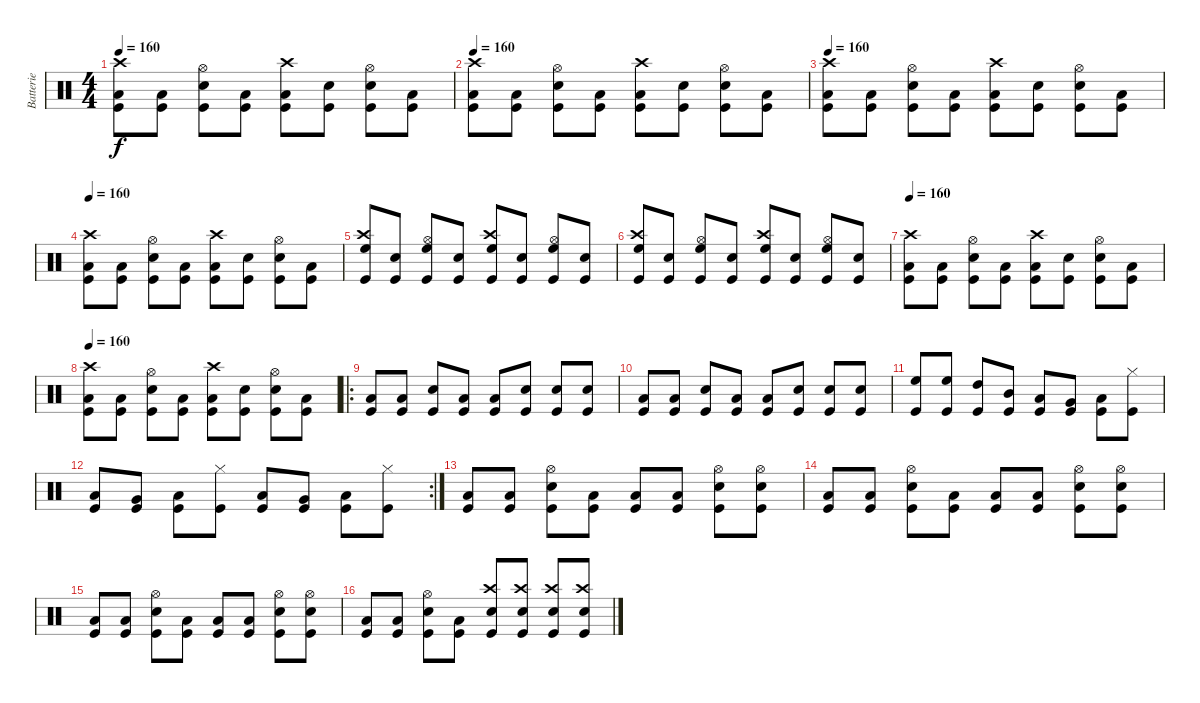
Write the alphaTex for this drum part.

\track ("Batterie" "Batterie") {instrument percussion}
\staff {score}
\articulation defaults
\ts (4 4)
\tempo 160
\clef neutral
\ks c
("Kick (hit)" "Low Tom (hit)" "Crash high (hit)").8{dy f} ("Kick (hit)" "Low Tom (hit)").8 ("Kick (hit)" "Snare (hit) 2" "Hi-Hat (open)").8 ("Kick (hit)" "Low Tom (hit)").8 ("Kick (hit)" "Low Tom (hit)" "Crash high (hit)").8 ("Kick (hit)" "Snare (hit) 2").8 ("Kick (hit)" "Snare (hit) 2" "Hi-Hat (open)").8 ("Low Floor Tom (hit)" "Kick (hit)").8 |
\tempo 160
("Kick (hit)" "Low Tom (hit)" "Crash high (hit)").8 ("Kick (hit)" "Low Tom (hit)").8 ("Kick (hit)" "Snare (hit) 2" "Hi-Hat (open)").8 ("Kick (hit)" "Low Tom (hit)").8 ("Kick (hit)" "Low Tom (hit)" "Crash high (hit)").8 ("Kick (hit)" "Snare (hit) 2").8 ("Kick (hit)" "Snare (hit) 2" "Hi-Hat (open)").8 ("Low Floor Tom (hit)" "Kick (hit)").8 |
\tempo 160
("Kick (hit)" "Low Tom (hit)" "Crash high (hit)").8 ("Kick (hit)" "Low Tom (hit)").8 ("Kick (hit)" "Snare (hit) 2" "Hi-Hat (open)").8 ("Kick (hit)" "Low Tom (hit)").8 ("Kick (hit)" "Low Tom (hit)" "Crash high (hit)").8 ("Kick (hit)" "Snare (hit) 2").8 ("Kick (hit)" "Snare (hit) 2" "Hi-Hat (open)").8 ("Low Floor Tom (hit)" "Kick (hit)").8 |
\tempo 160
("Kick (hit)" "Low Tom (hit)" "Crash high (hit)").8 ("Kick (hit)" "Low Tom (hit)").8 ("Kick (hit)" "Snare (hit) 2" "Hi-Hat (open)").8 ("Kick (hit)" "Low Tom (hit)").8 ("Kick (hit)" "Low Tom (hit)" "Crash high (hit)").8 ("Kick (hit)" "Snare (hit) 2").8 ("Kick (hit)" "Snare (hit) 2" "Hi-Hat (open)").8 ("Low Floor Tom (hit)" "Kick (hit)").8 |
("Kick (hit)" "High Floor Tom (hit)" "Crash high (hit)").8 ("Kick (hit)" "Snare (hit) 2").8 ("Kick (hit)" "High Floor Tom (hit)" "Hi-Hat (open)").8 ("Kick (hit)" "Snare (hit) 2").8 ("Kick (hit)" "High Floor Tom (hit)" "Crash high (hit)").8 ("Kick (hit)" "Snare (hit) 2").8 ("Kick (hit)" "High Floor Tom (hit)" "Hi-Hat (open)").8 ("Kick (hit)" "Snare (hit) 2").8 |
("Kick (hit)" "High Floor Tom (hit)" "Crash high (hit)").8 ("Kick (hit)" "Snare (hit) 2").8 ("Kick (hit)" "High Floor Tom (hit)" "Hi-Hat (open)").8 ("Kick (hit)" "Snare (hit) 2").8 ("Kick (hit)" "High Floor Tom (hit)" "Crash high (hit)").8 ("Kick (hit)" "Snare (hit) 2").8 ("Kick (hit)" "High Floor Tom (hit)" "Hi-Hat (open)").8 ("Kick (hit)" "Snare (hit) 2").8 |
\tempo 160
("Kick (hit)" "Low Tom (hit)" "Crash high (hit)").8 ("Kick (hit)" "Low Tom (hit)").8 ("Kick (hit)" "Snare (hit) 2" "Hi-Hat (open)").8 ("Kick (hit)" "Low Tom (hit)").8 ("Kick (hit)" "Low Tom (hit)" "Crash high (hit)").8 ("Kick (hit)" "Snare (hit) 2").8 ("Kick (hit)" "Snare (hit) 2" "Hi-Hat (open)").8 ("Low Floor Tom (hit)" "Kick (hit)").8 |
\tempo 160
("Kick (hit)" "Low Tom (hit)" "Crash high (hit)").8 ("Kick (hit)" "Low Tom (hit)").8 ("Kick (hit)" "Snare (hit) 2" "Hi-Hat (open)").8 ("Kick (hit)" "Low Tom (hit)").8 ("Kick (hit)" "Low Tom (hit)" "Crash high (hit)").8 ("Kick (hit)" "Snare (hit) 2").8 ("Kick (hit)" "Snare (hit) 2" "Hi-Hat (open)").8 ("Low Floor Tom (hit)" "Kick (hit)").8 |
\ro
("Low Floor Tom (hit)" "Kick (hit)").8 ("Low Floor Tom (hit)" "Kick (hit)").8 ("Snare (hit) 2" "Kick (hit)").8 ("Low Floor Tom (hit)" "Kick (hit)").8 ("Low Floor Tom (hit)" "Kick (hit)").8 ("Snare (hit) 2" "Kick (hit)").8 ("Snare (hit) 2" "Kick (hit)").8 ("Snare (hit) 2" "Kick (hit)").8 |
("Low Floor Tom (hit)" "Kick (hit)").8 ("Low Floor Tom (hit)" "Kick (hit)").8 ("Snare (hit) 2" "Kick (hit)").8 ("Low Floor Tom (hit)" "Kick (hit)").8 ("Low Floor Tom (hit)" "Kick (hit)").8 ("Snare (hit) 2" "Kick (hit)").8 ("Snare (hit) 2" "Kick (hit)").8 ("Snare (hit) 2" "Kick (hit)").8 |
("Kick (hit)" "High Floor Tom (hit)").8 ("Kick (hit)" "High Floor Tom (hit)").8 ("Kick (hit)" "High Tom (hit)").8 ("Kick (hit)" "Mid Tom (hit)").8 ("Kick (hit)" "Low Tom (hit)").8 ("Kick (hit)" "Very Low Tom (hit)").8 ("Kick (hit)" "Low Floor Tom (hit)").8 ("Kick (hit)" "Hi-Hat (closed)").8 |
\rc 2
("Kick (hit)" "Low Tom (hit)").8 ("Kick (hit)" "Very Low Tom (hit)").8 ("Kick (hit)" "Low Floor Tom (hit)").8 ("Kick (hit)" "Hi-Hat (closed)").8 ("Kick (hit)" "Low Tom (hit)").8 ("Kick (hit)" "Very Low Tom (hit)").8 ("Kick (hit)" "Low Floor Tom (hit)").8 ("Kick (hit)" "Hi-Hat (closed)").8 |
("Low Floor Tom (hit)" "Kick (hit)").8 ("Low Floor Tom (hit)" "Kick (hit)").8 ("Hi-Hat (open)" "Snare (hit) 2" "Kick (hit)").8 ("Low Floor Tom (hit)" "Kick (hit)").8 ("Low Floor Tom (hit)" "Kick (hit)").8 ("Low Floor Tom (hit)" "Kick (hit)").8 ("Hi-Hat (open)" "Snare (hit) 2" "Kick (hit)").8 ("Hi-Hat (open)" "Snare (hit) 2" "Kick (hit)").8 |
("Low Floor Tom (hit)" "Kick (hit)").8 ("Low Floor Tom (hit)" "Kick (hit)").8 ("Hi-Hat (open)" "Snare (hit) 2" "Kick (hit)").8 ("Low Floor Tom (hit)" "Kick (hit)").8 ("Low Floor Tom (hit)" "Kick (hit)").8 ("Low Floor Tom (hit)" "Kick (hit)").8 ("Hi-Hat (open)" "Snare (hit) 2" "Kick (hit)").8 ("Hi-Hat (open)" "Snare (hit) 2" "Kick (hit)").8 |
("Low Floor Tom (hit)" "Kick (hit)").8 ("Low Floor Tom (hit)" "Kick (hit)").8 ("Hi-Hat (open)" "Snare (hit) 2" "Kick (hit)").8 ("Low Floor Tom (hit)" "Kick (hit)").8 ("Low Floor Tom (hit)" "Kick (hit)").8 ("Low Floor Tom (hit)" "Kick (hit)").8 ("Hi-Hat (open)" "Snare (hit) 2" "Kick (hit)").8 ("Hi-Hat (open)" "Snare (hit) 2" "Kick (hit)").8 |
("Low Floor Tom (hit)" "Kick (hit)").8 ("Low Floor Tom (hit)" "Kick (hit)").8 ("Hi-Hat (open)" "Snare (hit) 2" "Kick (hit)").8 ("Low Floor Tom (hit)" "Kick (hit)").8 ("Snare (hit) 2" "Kick (hit)" "Crash high (hit)").8 ("Snare (hit) 2" "Kick (hit)" "Crash high (hit)").8 ("Snare (hit) 2" "Kick (hit)" "Crash high (hit)").8 ("Snare (hit) 2" "Kick (hit)" "Crash high (hit)").8
